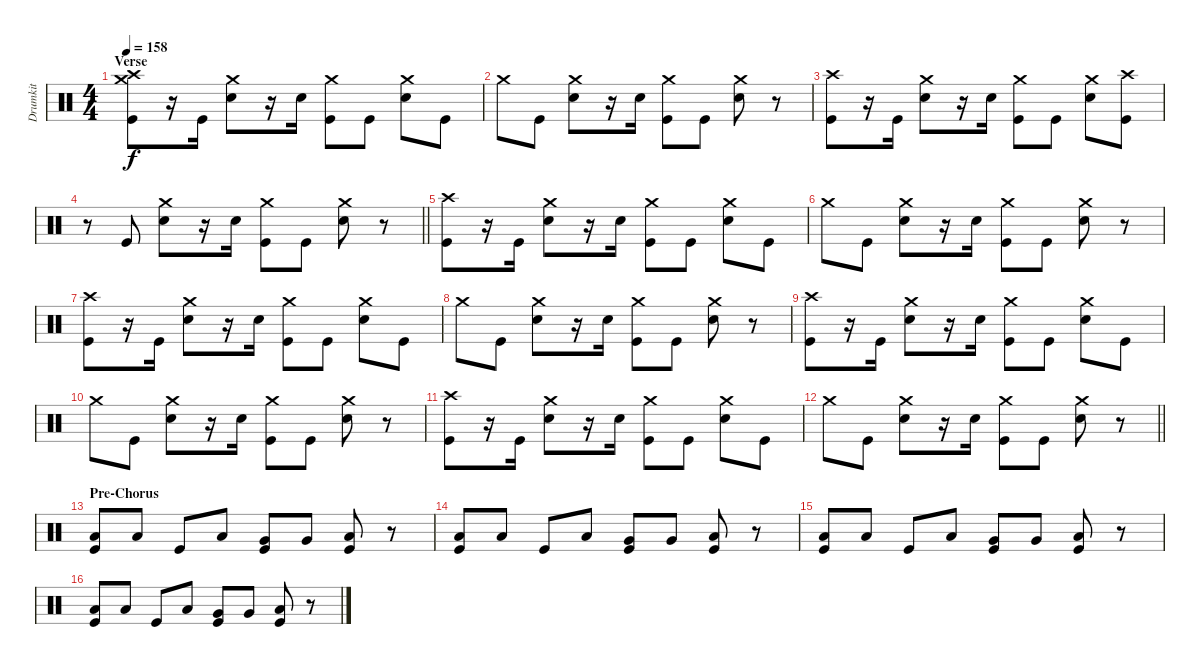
\track ("Drumkit" "Drumkit") {instrument percussion}
\staff {score}
\articulation defaults
\ts (4 4)
\section ("" "Verse")
\tempo 158
\clef neutral
\ks c
("Crash high (hit)" "Crash medium (hit)" "Kick (hit)").8{dy f} r.16 "Kick (hit)".16 ("Crash medium (hit)" "Snare (hit) 2").8 r.16 "Snare (hit) 2".16 ("Crash medium (hit)" "Kick (hit)").8 "Kick (hit)".8 ("Crash medium (hit)" "Snare (hit) 2").8 "Kick (hit)".8 |
"Crash medium (hit)".8 "Kick (hit)".8 ("Crash medium (hit)" "Snare (hit) 2").8 r.16 "Snare (hit) 2".16 ("Crash medium (hit)" "Kick (hit)").8 "Kick (hit)".8 ("Crash medium (hit)" "Snare (hit) 2").8 r.8 |
("Crash high (hit)" "Kick (hit)").8 r.16 "Kick (hit)".16 ("Crash medium (hit)" "Snare (hit) 2").8 r.16 "Snare (hit) 2".16 ("Crash medium (hit)" "Kick (hit)").8 "Kick (hit)".8 ("Crash medium (hit)" "Snare (hit) 2").8 ("Crash high (hit)" "Kick (hit)").8 |
\barLineRight lightlight
r.8 "Kick (hit)".8 ("Crash medium (hit)" "Snare (hit) 2").8 r.16 "Snare (hit) 2".16 ("Crash medium (hit)" "Kick (hit)").8 "Kick (hit)".8 ("Crash medium (hit)" "Snare (hit) 2").8 r.8 |
("Crash high (hit)" "Kick (hit)").8 r.16 "Kick (hit)".16 ("Crash medium (hit)" "Snare (hit) 2").8 r.16 "Snare (hit) 2".16 ("Crash medium (hit)" "Kick (hit)").8 "Kick (hit)".8 ("Crash medium (hit)" "Snare (hit) 2").8 "Kick (hit)".8 |
"Crash medium (hit)".8 "Kick (hit)".8 ("Crash medium (hit)" "Snare (hit) 2").8 r.16 "Snare (hit) 2".16 ("Crash medium (hit)" "Kick (hit)").8 "Kick (hit)".8 ("Crash medium (hit)" "Snare (hit) 2").8 r.8 |
("Crash high (hit)" "Kick (hit)").8 r.16 "Kick (hit)".16 ("Crash medium (hit)" "Snare (hit) 2").8 r.16 "Snare (hit) 2".16 ("Crash medium (hit)" "Kick (hit)").8 "Kick (hit)".8 ("Crash medium (hit)" "Snare (hit) 2").8 "Kick (hit)".8 |
"Crash medium (hit)".8 "Kick (hit)".8 ("Crash medium (hit)" "Snare (hit) 2").8 r.16 "Snare (hit) 2".16 ("Crash medium (hit)" "Kick (hit)").8 "Kick (hit)".8 ("Crash medium (hit)" "Snare (hit) 2").8 r.8 |
("Crash high (hit)" "Kick (hit)").8 r.16 "Kick (hit)".16 ("Crash medium (hit)" "Snare (hit) 2").8 r.16 "Snare (hit) 2".16 ("Crash medium (hit)" "Kick (hit)").8 "Kick (hit)".8 ("Crash medium (hit)" "Snare (hit) 2").8 "Kick (hit)".8 |
"Crash medium (hit)".8 "Kick (hit)".8 ("Crash medium (hit)" "Snare (hit) 2").8 r.16 "Snare (hit) 2".16 ("Crash medium (hit)" "Kick (hit)").8 "Kick (hit)".8 ("Crash medium (hit)" "Snare (hit) 2").8 r.8 |
("Crash high (hit)" "Kick (hit)").8 r.16 "Kick (hit)".16 ("Crash medium (hit)" "Snare (hit) 2").8 r.16 "Snare (hit) 2".16 ("Crash medium (hit)" "Kick (hit)").8 "Kick (hit)".8 ("Crash medium (hit)" "Snare (hit) 2").8 "Kick (hit)".8 |
\barLineRight lightlight "Crash medium (hit)".8 "Kick (hit)".8
("Crash medium (hit)" "Snare (hit) 2").8 r.16 "Snare (hit) 2".16 ("Crash medium (hit)" "Kick (hit)").8 "Kick (hit)".8 ("Crash medium (hit)" "Snare (hit) 2").8 r.8 |
\section ("" "Pre-Chorus")
("Low Floor Tom (hit)" "Kick (hit)").8 "Low Floor Tom (hit)".8 "Kick (hit)".8 "Low Tom (hit)".8 ("Very Low Tom (hit)" "Kick (hit)").8 "Very Low Tom (hit)".8 ("Low Floor Tom (hit)" "Kick (hit)").8 r.8 |
("Low Floor Tom (hit)" "Kick (hit)").8 "Low Floor Tom (hit)".8 "Kick (hit)".8 "Low Tom (hit)".8 ("Very Low Tom (hit)" "Kick (hit)").8 "Very Low Tom (hit)".8 ("Low Floor Tom (hit)" "Kick (hit)").8 r.8 |
("Low Floor Tom (hit)" "Kick (hit)").8 "Low Floor Tom (hit)".8 "Kick (hit)".8 "Low Tom (hit)".8 ("Very Low Tom (hit)" "Kick (hit)").8 "Very Low Tom (hit)".8 ("Low Floor Tom (hit)" "Kick (hit)").8 r.8 |
("Low Floor Tom (hit)" "Kick (hit)").8 "Low Floor Tom (hit)".8 "Kick (hit)".8 "Low Tom (hit)".8 ("Very Low Tom (hit)" "Kick (hit)").8 "Very Low Tom (hit)".8 ("Low Floor Tom (hit)" "Kick (hit)").8 r.8
